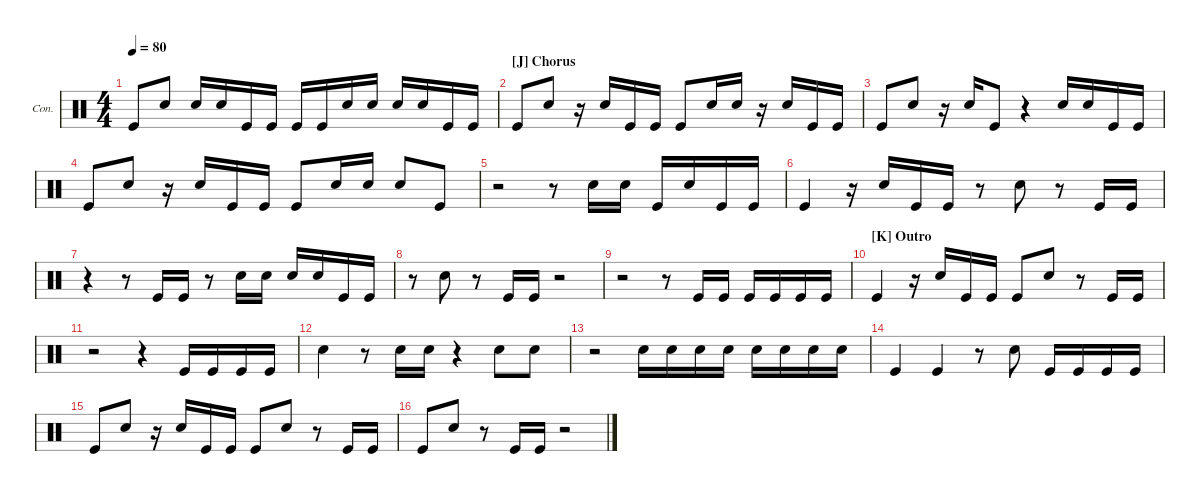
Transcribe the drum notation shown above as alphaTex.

\defaultSystemsLayout 4
\hideDynamics
\bracketExtendMode groupsimilarinstruments
\firstSystemTrackNameOrientation horizontal
\otherSystemsTrackNameOrientation horizontal
\track ("Congas" "Con.") {multiBarRest instrument percussion}
\staff {score}
\articulation defaults
\ts (4 4)
\tempo 80
\clef neutral
\ks c "Kick (hit)".8{dy mf} "Snare (hit) 2".8 "Snare (hit) 2".16 "Snare (hit) 2".16 "Kick (hit)".16 "Kick (hit)".16 "Kick (hit)".16 "Kick (hit)".16 "Snare (hit) 2".16 "Snare (hit) 2".16 "Snare (hit) 2".16 "Snare (hit) 2".16 "Kick (hit)".16 "Kick (hit)".16
|
\section ("J" "Chorus")
"Kick (hit)".8 "Snare (hit) 2".8 r.16 "Snare (hit) 2".16 "Kick (hit)".16 "Kick (hit)".16 "Kick (hit)".8 "Snare (hit) 2".16 "Snare (hit) 2".16 r.16 "Snare (hit) 2".16 "Kick (hit)".16 "Kick (hit)".16 |
"Kick (hit)".8 "Snare (hit) 2".8 r.16 "Snare (hit) 2".16 "Kick (hit)".8 r.4 "Snare (hit) 2".16 "Snare (hit) 2".16 "Kick (hit)".16 "Kick (hit)".16 |
"Kick (hit)".8 "Snare (hit) 2".8 r.16 "Snare (hit) 2".16 "Kick (hit)".16 "Kick (hit)".16 "Kick (hit)".8 "Snare (hit) 2".16 "Snare (hit) 2".16 "Snare (hit) 2".8 "Kick (hit)".8 |
r.2 r.8 "Snare (hit) 2".16 "Snare (hit) 2".16 "Kick (hit)".16 "Snare (hit) 2".16 "Kick (hit)".16 "Kick (hit)".16 |
"Kick (hit)".4 r.16 "Snare (hit) 2".16 "Kick (hit)".16 "Kick (hit)".16 r.8 "Snare (hit) 2".8 r.8 "Kick (hit)".16 "Kick (hit)".16 |
r.4 r.8 "Kick (hit)".16 "Kick (hit)".16 r.8 "Snare (hit) 2".16 "Snare (hit) 2".16 "Snare (hit) 2".16 "Snare (hit) 2".16 "Kick (hit)".16 "Kick (hit)".16 |
r.8 "Snare (hit) 2".8 r.8 "Kick (hit)".16 "Kick (hit)".16 r.2 |
r.2 r.8 "Kick (hit)".16 "Kick (hit)".16 "Kick (hit)".16 "Kick (hit)".16 "Kick (hit)".16 "Kick (hit)".16 |
\section ("K" "Outro")
"Kick (hit)".4 r.16 "Snare (hit) 2".16 "Kick (hit)".16 "Kick (hit)".16 "Kick (hit)".8 "Snare (hit) 2".8 r.8 "Kick (hit)".16 "Kick (hit)".16 |
r.2 r.4 "Kick (hit)".16 "Kick (hit)".16 "Kick (hit)".16 "Kick (hit)".16 |
"Snare (hit) 2".4 r.8 "Snare (hit) 2".16 "Snare (hit) 2".16 r.4 "Snare (hit) 2".8 "Snare (hit) 2".8 |
r.2 "Snare (hit) 2".16 "Snare (hit) 2".16 "Snare (hit) 2".16 "Snare (hit) 2".16 "Snare (hit) 2".16 "Snare (hit) 2".16 "Snare (hit) 2".16 "Snare (hit) 2".16 |
"Kick (hit)".4 "Kick (hit)".4 r.8 "Snare (hit) 2".8 "Kick (hit)".16 "Kick (hit)".16 "Kick (hit)".16 "Kick (hit)".16 |
"Kick (hit)".8 "Snare (hit) 2".8 r.16 "Snare (hit) 2".16 "Kick (hit)".16 "Kick (hit)".16 "Kick (hit)".8 "Snare (hit) 2".8 r.8 "Kick (hit)".16 "Kick (hit)".16 |
"Kick (hit)".8 "Snare (hit) 2".8 r.8 "Kick (hit)".16 "Kick (hit)".16 r.2
